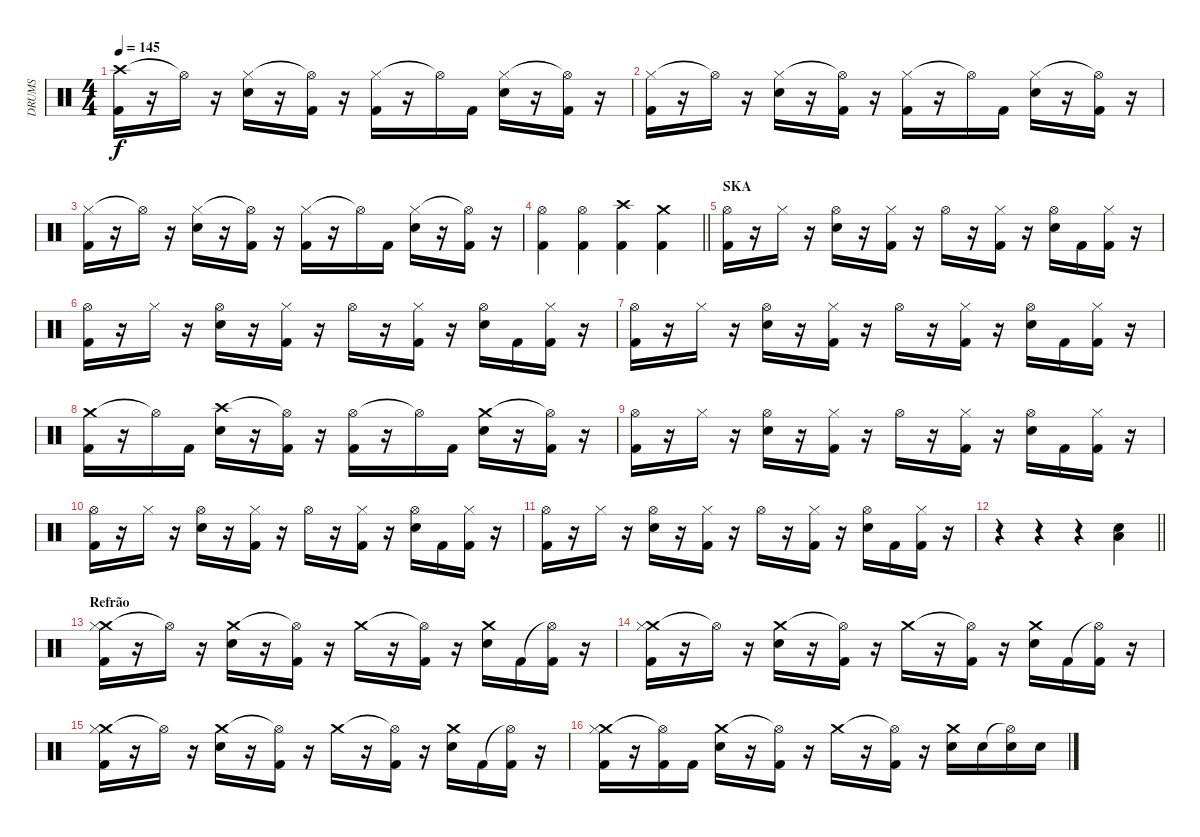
\track ("DRUMS" "DRUMS") {instrument percussion}
\staff {score}
\articulation defaults
\ts (4 4)
\tempo 145
\clef neutral
\ks c
("Crash high (hit)" "Kick (hit) 2").16{dy f} r.16 "Hi-Hat (open)"{t}.16 r.16 ("Hi-Hat (closed)" "Electric Snare (hit)").16 r.16 ("Hi-Hat (open)"{t} "Kick (hit) 2").16 r.16 ("Hi-Hat (closed)" "Kick (hit) 2").16 r.16 "Hi-Hat (open)"{t}.16 "Kick (hit) 2".16 ("Hi-Hat (closed)" "Electric Snare (hit)").16 r.16 ("Hi-Hat (open)"{t} "Kick (hit) 2").16 r.16 |
("Hi-Hat (closed)" "Kick (hit) 2").16 r.16 "Hi-Hat (open)"{t}.16 r.16 ("Hi-Hat (closed)" "Electric Snare (hit)").16 r.16 ("Hi-Hat (open)"{t} "Kick (hit) 2").16 r.16 ("Hi-Hat (closed)" "Kick (hit) 2").16 r.16 "Hi-Hat (open)"{t}.16 "Kick (hit) 2".16 ("Hi-Hat (closed)" "Electric Snare (hit)").16 r.16 ("Hi-Hat (open)"{t} "Kick (hit) 2").16 r.16 |
("Hi-Hat (closed)" "Kick (hit) 2").16 r.16 "Hi-Hat (open)"{t}.16 r.16 ("Hi-Hat (closed)" "Electric Snare (hit)").16 r.16 ("Hi-Hat (open)"{t} "Kick (hit) 2").16 r.16 ("Hi-Hat (closed)" "Kick (hit) 2").16 r.16 "Hi-Hat (open)"{t}.16 "Kick (hit) 2".16 ("Hi-Hat (closed)" "Electric Snare (hit)").16 r.16 ("Hi-Hat (open)"{t} "Kick (hit) 2").16 r.16 |
\barLineRight lightlight
("Hi-Hat (open)" "Kick (hit) 2").4 ("Hi-Hat (open)" "Kick (hit) 2").4 ("Crash high (hit)" "Kick (hit) 2").4 ("Crash medium (hit)" "Kick (hit) 2").4 |
\section ("" "SKA")
("Hi-Hat (open)" "Kick (hit) 2").16 r.16 "Hi-Hat (closed)".16 r.16 ("Hi-Hat (open)" "Electric Snare (hit)").16 r.16 ("Hi-Hat (closed)" "Kick (hit) 2").16 r.16 "Hi-Hat (open)".16 r.16 ("Hi-Hat (closed)" "Kick (hit) 2").16 r.16 ("Hi-Hat (open)" "Electric Snare (hit)").16 "Kick (hit) 2".16 ("Hi-Hat (closed)" "Kick (hit) 2").16 r.16 |
("Hi-Hat (open)" "Kick (hit) 2").16 r.16 "Hi-Hat (closed)".16 r.16 ("Hi-Hat (open)" "Electric Snare (hit)").16 r.16 ("Hi-Hat (closed)" "Kick (hit) 2").16 r.16 "Hi-Hat (open)".16 r.16 ("Hi-Hat (closed)" "Kick (hit) 2").16 r.16 ("Hi-Hat (open)" "Electric Snare (hit)").16 "Kick (hit) 2".16 ("Hi-Hat (closed)" "Kick (hit) 2").16 r.16 |
("Hi-Hat (open)" "Kick (hit) 2").16 r.16 "Hi-Hat (closed)".16 r.16 ("Hi-Hat (open)" "Electric Snare (hit)").16 r.16 ("Hi-Hat (closed)" "Kick (hit) 2").16 r.16 "Hi-Hat (open)".16 r.16 ("Hi-Hat (closed)" "Kick (hit) 2").16 r.16 ("Hi-Hat (open)" "Electric Snare (hit)").16 "Kick (hit) 2".16 ("Hi-Hat (closed)" "Kick (hit) 2").16 r.16 |
("Crash medium (hit)" "Kick (hit) 2").16 r.16 "Hi-Hat (open)"{t}.16 "Kick (hit) 2".16 ("Crash high (hit)" "Electric Snare (hit)").16 r.16 ("Hi-Hat (open)"{t} "Kick (hit) 2").16 r.16 ("Hi-Hat (open)" "Kick (hit) 2").16 r.16 "Hi-Hat (open)"{t}.16 "Kick (hit) 2".16 ("Crash medium (hit)" "Electric Snare (hit)").16 r.16 ("Hi-Hat (open)"{t} "Kick (hit) 2").16 r.16 |
("Hi-Hat (open)" "Kick (hit) 2").16 r.16 "Hi-Hat (closed)".16 r.16 ("Hi-Hat (open)" "Electric Snare (hit)").16 r.16 ("Hi-Hat (closed)" "Kick (hit) 2").16 r.16 "Hi-Hat (open)".16 r.16 ("Hi-Hat (closed)" "Kick (hit) 2").16 r.16 ("Hi-Hat (open)" "Electric Snare (hit)").16 "Kick (hit) 2".16 ("Hi-Hat (closed)" "Kick (hit) 2").16 r.16 |
("Hi-Hat (open)" "Kick (hit) 2").16 r.16 "Hi-Hat (closed)".16 r.16 ("Hi-Hat (open)" "Electric Snare (hit)").16 r.16 ("Hi-Hat (closed)" "Kick (hit) 2").16 r.16 "Hi-Hat (open)".16 r.16 ("Hi-Hat (closed)" "Kick (hit) 2").16 r.16 ("Hi-Hat (open)" "Electric Snare (hit)").16 "Kick (hit) 2".16 ("Hi-Hat (closed)" "Kick (hit) 2").16 r.16 |
("Hi-Hat (open)" "Kick (hit) 2").16 r.16 "Hi-Hat (closed)".16 r.16 ("Hi-Hat (open)" "Electric Snare (hit)").16 r.16 ("Hi-Hat (closed)" "Kick (hit) 2").16 r.16 "Hi-Hat (open)".16 r.16 ("Hi-Hat (closed)" "Kick (hit) 2").16 r.16 ("Hi-Hat (open)" "Electric Snare (hit)").16 "Kick (hit) 2".16 ("Hi-Hat (closed)" "Kick (hit) 2").16 r.16 |
\barLineRight lightlight
r.4 r.4 r.4 ("Electric Snare (hit)" "Low Tom (hit)").4 |
\section ("" "Refrão")
("Crash medium (hit)" "Hi-Hat (closed)" "Kick (hit) 2").16 r.16 "Hi-Hat (open)"{t}.16 r.16 ("Crash medium (hit)" "Electric Snare (hit)").16 r.16 ("Hi-Hat (open)"{t} "Kick (hit) 2").16 r.16 "Crash medium (hit)".16 r.16 ("Hi-Hat (open)"{t} "Kick (hit) 2").16 r.16 ("Crash medium (hit)" "Electric Snare (hit)").16 "Kick (hit) 2".16 ("Hi-Hat (open)"{t} "Kick (hit) 2").16 r.16 |
("Crash medium (hit)" "Hi-Hat (closed)" "Kick (hit) 2").16 r.16 "Hi-Hat (open)"{t}.16 r.16 ("Crash medium (hit)" "Electric Snare (hit)").16 r.16 ("Hi-Hat (open)"{t} "Kick (hit) 2").16 r.16 "Crash medium (hit)".16 r.16 ("Hi-Hat (open)"{t} "Kick (hit) 2").16 r.16 ("Crash medium (hit)" "Electric Snare (hit)").16 "Kick (hit) 2".16 ("Hi-Hat (open)"{t} "Kick (hit) 2").16 r.16 |
("Crash medium (hit)" "Hi-Hat (closed)" "Kick (hit) 2").16 r.16 "Hi-Hat (open)"{t}.16 r.16 ("Crash medium (hit)" "Electric Snare (hit)").16 r.16 ("Hi-Hat (open)"{t} "Kick (hit) 2").16 r.16 "Crash medium (hit)".16 r.16 ("Hi-Hat (open)"{t} "Kick (hit) 2").16 r.16 ("Crash medium (hit)" "Electric Snare (hit)").16 "Kick (hit) 2".16 ("Hi-Hat (open)"{t} "Kick (hit) 2").16 r.16 |
("Crash medium (hit)" "Hi-Hat (closed)" "Kick (hit) 2").16 r.16 ("Hi-Hat (open)"{t} "Kick (hit) 2").16 "Kick (hit) 2".16 ("Crash medium (hit)" "Electric Snare (hit)").16 r.16 ("Hi-Hat (open)"{t} "Kick (hit) 2").16 r.16 "Crash medium (hit)".16 r.16 ("Hi-Hat (open)"{t} "Kick (hit) 2").16 r.16 ("Crash medium (hit)" "Electric Snare (hit)").16 "Electric Snare (hit)".16 ("Hi-Hat (open)"{t} "Electric Snare (hit)").16 "Electric Snare (hit)".16
